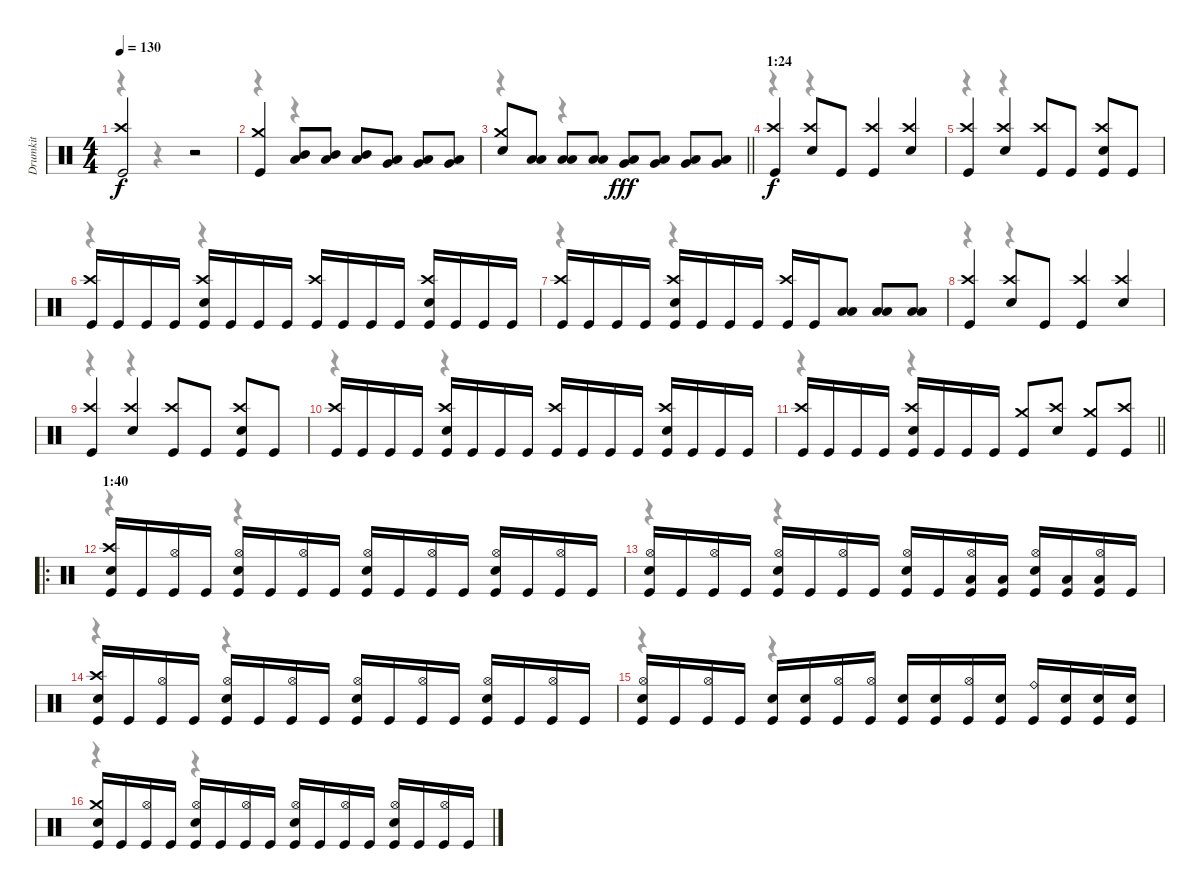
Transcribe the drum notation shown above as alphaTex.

\track ("Drumkit" "Drumkit") {instrument percussion}
\staff {score}
\articulation defaults
\voice
\ts (4 4)
\tempo 130
\clef neutral
\ks c
("Crash high (hit)" "Kick (hit)").2{dy f} r.2 |
("Crash medium (hit)" "Kick (hit)").4 ("Mid Tom (hit)" "Low Tom (hit)").8 ("Mid Tom (hit)" "Low Tom (hit)").8 ("Mid Tom (hit)" "Low Tom (hit)").8 ("Low Tom (hit)" "Very Low Tom (hit)").8 ("Low Tom (hit)" "Very Low Tom (hit)").8 ("Low Tom (hit)" "Very Low Tom (hit)").8 |
\barLineRight lightlight
("Crash medium (hit)" "Snare (hit) 2").8 ("Low Tom (hit)" "Low Floor Tom (hit)").8 ("Low Tom (hit)" "Low Floor Tom (hit)").8 ("Low Tom (hit)" "Low Floor Tom (hit)").8 ("Very Low Tom (hit)" "Low Floor Tom (hit)").8{dy fff} ("Very Low Tom (hit)" "Low Floor Tom (hit)").8 ("Very Low Tom (hit)" "Low Floor Tom (hit)").8 ("Very Low Tom (hit)" "Low Floor Tom (hit)").8 |
\section ("" "1:24")
("Crash high (hit)" "Kick (hit)").4{dy f} ("Crash high (hit)" "Snare (hit) 2").8 "Kick (hit)".8 ("Crash high (hit)" "Kick (hit)").4 ("Crash high (hit)" "Snare (hit) 2").4 |
("Crash high (hit)" "Kick (hit)").4 ("Crash high (hit)" "Snare (hit) 2").4 ("Crash high (hit)" "Kick (hit)").8 "Kick (hit)".8 ("Crash high (hit)" "Snare (hit) 2" "Kick (hit)").8 "Kick (hit)".8 |
("Crash high (hit)" "Kick (hit)").16 "Kick (hit)".16 "Kick (hit)".16 "Kick (hit)".16 ("Crash high (hit)" "Snare (hit) 2" "Kick (hit)").16 "Kick (hit)".16 "Kick (hit)".16 "Kick (hit)".16 ("Crash high (hit)" "Kick (hit)").16 "Kick (hit)".16 "Kick (hit)".16 "Kick (hit)".16 ("Crash high (hit)" "Snare (hit) 2" "Kick (hit)").16 "Kick (hit)".16 "Kick (hit)".16 "Kick (hit)".16 |
("Crash high (hit)" "Kick (hit)").16 "Kick (hit)".16 "Kick (hit)".16 "Kick (hit)".16 ("Crash high (hit)" "Snare (hit) 2" "Kick (hit)").16 "Kick (hit)".16 "Kick (hit)".16 "Kick (hit)".16 ("Crash high (hit)" "Kick (hit)").16 "Kick (hit)".16 ("Low Tom (hit)" "Low Floor Tom (hit)").8 ("Low Tom (hit)" "Low Floor Tom (hit)").8 ("Low Tom (hit)" "Low Floor Tom (hit)").8 |
("Crash high (hit)" "Kick (hit)").4 ("Crash high (hit)" "Snare (hit) 2").8 "Kick (hit)".8 ("Crash high (hit)" "Kick (hit)").4 ("Crash high (hit)" "Snare (hit) 2").4 |
("Crash high (hit)" "Kick (hit)").4 ("Crash high (hit)" "Snare (hit) 2").4 ("Crash high (hit)" "Kick (hit)").8 "Kick (hit)".8 ("Crash high (hit)" "Snare (hit) 2" "Kick (hit)").8 "Kick (hit)".8 |
("Crash high (hit)" "Kick (hit)").16 "Kick (hit)".16 "Kick (hit)".16 "Kick (hit)".16 ("Crash high (hit)" "Snare (hit) 2" "Kick (hit)").16 "Kick (hit)".16 "Kick (hit)".16 "Kick (hit)".16 ("Crash high (hit)" "Kick (hit)").16 "Kick (hit)".16 "Kick (hit)".16 "Kick (hit)".16 ("Crash high (hit)" "Snare (hit) 2" "Kick (hit)").16 "Kick (hit)".16 "Kick (hit)".16 "Kick (hit)".16 |
\barLineRight lightlight
("Crash high (hit)" "Kick (hit)").16 "Kick (hit)".16 "Kick (hit)".16 "Kick (hit)".16 ("Crash high (hit)" "Snare (hit) 2" "Kick (hit)").16 "Kick (hit)".16 "Kick (hit)".16 "Kick (hit)".16 ("Crash medium (hit)" "Kick (hit)").8 ("Crash high (hit)" "Snare (hit) 2").8 ("Crash medium (hit)" "Kick (hit)").8 ("Crash high (hit)" "Kick (hit)").8 |
\ro
\section ("" "1:40")
("Crash high (hit)" "Snare (hit) 2" "Kick (hit)").16 "Kick (hit)".16 ("Hi-Hat (open)" "Kick (hit)").16 "Kick (hit)".16 ("Hi-Hat (open)" "Snare (hit) 2" "Kick (hit)").16 "Kick (hit)".16 ("Hi-Hat (open)" "Kick (hit)").16 "Kick (hit)".16 ("Hi-Hat (open)" "Snare (hit) 2" "Kick (hit)").16 "Kick (hit)".16 ("Hi-Hat (open)" "Kick (hit)").16 "Kick (hit)".16 ("Hi-Hat (open)" "Snare (hit) 2" "Kick (hit)").16 "Kick (hit)".16 ("Hi-Hat (open)" "Kick (hit)").16 "Kick (hit)".16 |
("Hi-Hat (open)" "Snare (hit) 2" "Kick (hit)").16 "Kick (hit)".16 ("Hi-Hat (open)" "Kick (hit)").16 "Kick (hit)".16 ("Hi-Hat (open)" "Snare (hit) 2" "Kick (hit)").16 "Kick (hit)".16 ("Hi-Hat (open)" "Kick (hit)").16 "Kick (hit)".16 ("Hi-Hat (open)" "Snare (hit) 2" "Kick (hit)").16 "Kick (hit)".16 ("Hi-Hat (open)" "Kick (hit)" "Low Tom (hit)").16 ("Kick (hit)" "Low Tom (hit)").16 ("Hi-Hat (open)" "Snare (hit) 2" "Kick (hit)").16 ("Kick (hit)" "Low Tom (hit)").16 ("Hi-Hat (open)" "Kick (hit)" "Low Tom (hit)").16 "Kick (hit)".16 |
("Crash high (hit)" "Snare (hit) 2" "Kick (hit)").16 "Kick (hit)".16 ("Hi-Hat (open)" "Kick (hit)").16 "Kick (hit)".16 ("Hi-Hat (open)" "Snare (hit) 2" "Kick (hit)").16 "Kick (hit)".16 ("Hi-Hat (open)" "Kick (hit)").16 "Kick (hit)".16 ("Hi-Hat (open)" "Snare (hit) 2" "Kick (hit)").16 "Kick (hit)".16 ("Hi-Hat (open)" "Kick (hit)").16 "Kick (hit)".16 ("Hi-Hat (open)" "Snare (hit) 2" "Kick (hit)").16 "Kick (hit)".16 ("Hi-Hat (open)" "Kick (hit)").16 "Kick (hit)".16 |
("Hi-Hat (open)" "Snare (hit) 2" "Kick (hit)").16 "Kick (hit)".16 ("Hi-Hat (open)" "Kick (hit)").16 "Kick (hit)".16 ("Snare (hit) 2" "Kick (hit)").16 ("Kick (hit)" "Snare (hit) 2").16 ("Hi-Hat (open)" "Kick (hit)").16 ("Hi-Hat (open)" "Kick (hit)").16 ("Snare (hit) 2" "Kick (hit)").16 ("Snare (hit) 2" "Kick (hit)").16 ("Hi-Hat (open)" "Kick (hit)").16 ("Snare (hit) 2" "Kick (hit)").16 ("Ride (bell)" "Kick (hit)").16 ("Snare (hit) 2" "Kick (hit)").16 ("Snare (hit) 2" "Kick (hit)").16 ("Snare (hit) 2" "Kick (hit)").16 |
("Crash medium (hit)" "Snare (hit) 2" "Kick (hit)").16 "Kick (hit)".16 ("Hi-Hat (open)" "Kick (hit)").16 "Kick (hit)".16 ("Hi-Hat (open)" "Snare (hit) 2" "Kick (hit)").16 "Kick (hit)".16 ("Hi-Hat (open)" "Kick (hit)").16 "Kick (hit)".16 ("Hi-Hat (open)" "Snare (hit) 2" "Kick (hit)").16 "Kick (hit)".16 ("Hi-Hat (open)" "Kick (hit)").16 "Kick (hit)".16 ("Hi-Hat (open)" "Snare (hit) 2" "Kick (hit)").16 "Kick (hit)".16 ("Hi-Hat (open)" "Kick (hit)").16 "Kick (hit)".16
\voice
\clef neutral
\ottava regular
\simile none
\ks c
r.4{dy f} r.4 |
r.4 r.4 |
\barLineRight lightlight
r.4 r.4 |
r.4 r.4 |
r.4 r.4 |
r.4 r.4 |
r.4 r.4 |
r.4 r.4 |
r.4 r.4 |
r.4 r.4 |
\barLineRight lightlight
r.4 r.4 |
r.4 r.4 |
r.4 r.4 |
r.4 r.4 |
r.4 r.4 |
r.4 r.4
